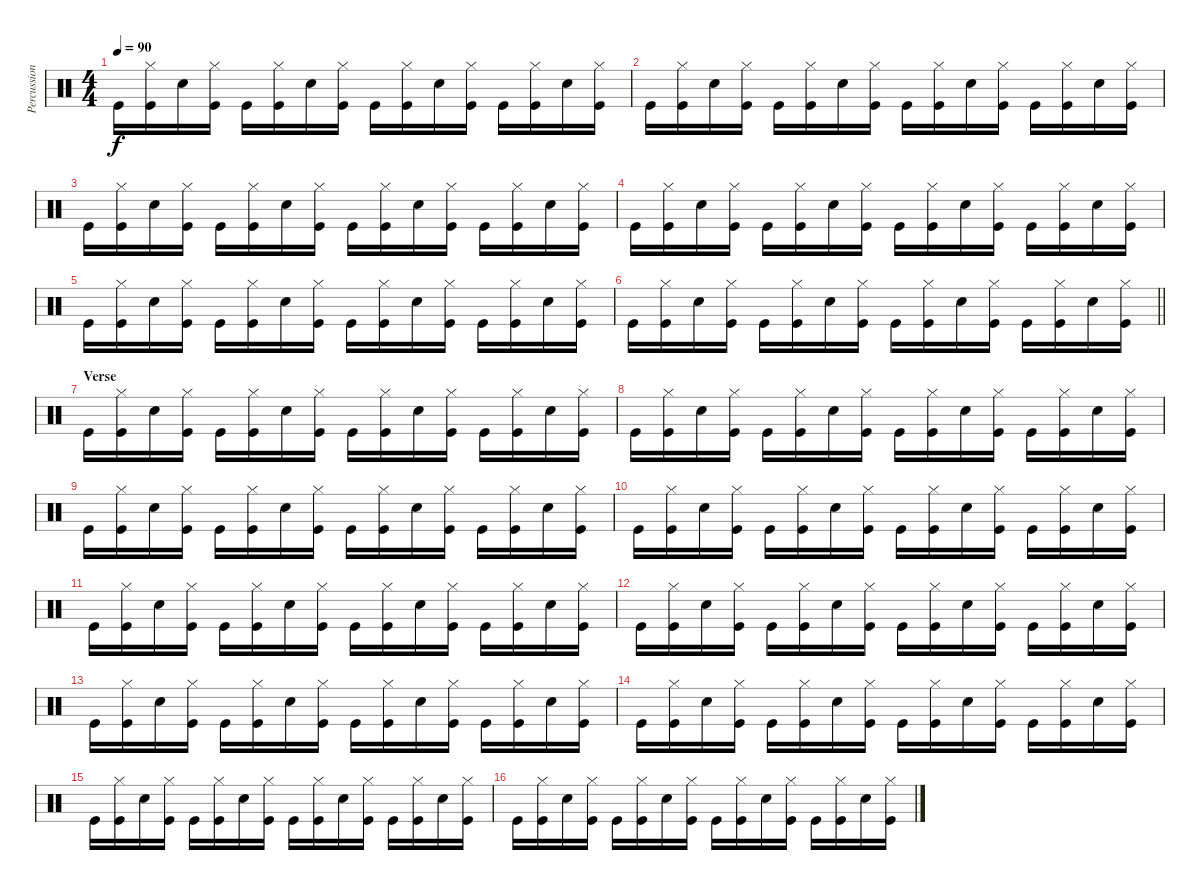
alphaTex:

\track ("Percussion" "Percussion") {instrument percussion}
\staff {score}
\articulation defaults
\ts (4 4)
\tempo 90
\clef neutral
\ks c "Kick (hit)".16{dy f}
("Hi-Hat (closed)" "Kick (hit)").16 "Snare (hit) 2".16 ("Hi-Hat (closed)" "Kick (hit)").16 "Kick (hit)".16 ("Hi-Hat (closed)" "Kick (hit)").16 "Snare (hit) 2".16 ("Hi-Hat (closed)" "Kick (hit)").16 "Kick (hit)".16 ("Hi-Hat (closed)" "Kick (hit)").16 "Snare (hit) 2".16 ("Hi-Hat (closed)" "Kick (hit)").16 "Kick (hit)".16 ("Hi-Hat (closed)" "Kick (hit)").16 "Snare (hit) 2".16 ("Hi-Hat (closed)" "Kick (hit)").16 |
"Kick (hit)".16 ("Hi-Hat (closed)" "Kick (hit)").16 "Snare (hit) 2".16 ("Hi-Hat (closed)" "Kick (hit)").16 "Kick (hit)".16 ("Hi-Hat (closed)" "Kick (hit)").16 "Snare (hit) 2".16 ("Hi-Hat (closed)" "Kick (hit)").16 "Kick (hit)".16 ("Hi-Hat (closed)" "Kick (hit)").16 "Snare (hit) 2".16 ("Hi-Hat (closed)" "Kick (hit)").16 "Kick (hit)".16 ("Hi-Hat (closed)" "Kick (hit)").16 "Snare (hit) 2".16 ("Hi-Hat (closed)" "Kick (hit)").16 |
"Kick (hit)".16 ("Hi-Hat (closed)" "Kick (hit)").16 "Snare (hit) 2".16 ("Hi-Hat (closed)" "Kick (hit)").16 "Kick (hit)".16 ("Hi-Hat (closed)" "Kick (hit)").16 "Snare (hit) 2".16 ("Hi-Hat (closed)" "Kick (hit)").16 "Kick (hit)".16 ("Hi-Hat (closed)" "Kick (hit)").16 "Snare (hit) 2".16 ("Hi-Hat (closed)" "Kick (hit)").16 "Kick (hit)".16 ("Hi-Hat (closed)" "Kick (hit)").16 "Snare (hit) 2".16 ("Hi-Hat (closed)" "Kick (hit)").16 |
"Kick (hit)".16 ("Hi-Hat (closed)" "Kick (hit)").16 "Snare (hit) 2".16 ("Hi-Hat (closed)" "Kick (hit)").16 "Kick (hit)".16 ("Hi-Hat (closed)" "Kick (hit)").16 "Snare (hit) 2".16 ("Hi-Hat (closed)" "Kick (hit)").16 "Kick (hit)".16 ("Hi-Hat (closed)" "Kick (hit)").16 "Snare (hit) 2".16 ("Hi-Hat (closed)" "Kick (hit)").16 "Kick (hit)".16 ("Hi-Hat (closed)" "Kick (hit)").16 "Snare (hit) 2".16 ("Hi-Hat (closed)" "Kick (hit)").16 |
"Kick (hit)".16 ("Hi-Hat (closed)" "Kick (hit)").16 "Snare (hit) 2".16 ("Hi-Hat (closed)" "Kick (hit)").16 "Kick (hit)".16 ("Hi-Hat (closed)" "Kick (hit)").16 "Snare (hit) 2".16 ("Hi-Hat (closed)" "Kick (hit)").16 "Kick (hit)".16 ("Hi-Hat (closed)" "Kick (hit)").16 "Snare (hit) 2".16 ("Hi-Hat (closed)" "Kick (hit)").16 "Kick (hit)".16 ("Hi-Hat (closed)" "Kick (hit)").16 "Snare (hit) 2".16 ("Hi-Hat (closed)" "Kick (hit)").16 |
\barLineRight lightlight "Kick (hit)".16
("Hi-Hat (closed)" "Kick (hit)").16 "Snare (hit) 2".16 ("Hi-Hat (closed)" "Kick (hit)").16 "Kick (hit)".16 ("Hi-Hat (closed)" "Kick (hit)").16 "Snare (hit) 2".16 ("Hi-Hat (closed)" "Kick (hit)").16 "Kick (hit)".16 ("Hi-Hat (closed)" "Kick (hit)").16 "Snare (hit) 2".16 ("Hi-Hat (closed)" "Kick (hit)").16 "Kick (hit)".16 ("Hi-Hat (closed)" "Kick (hit)").16 "Snare (hit) 2".16 ("Hi-Hat (closed)" "Kick (hit)").16 |
\section ("" "Verse")
"Kick (hit)".16 ("Hi-Hat (closed)" "Kick (hit)").16 "Snare (hit) 2".16 ("Hi-Hat (closed)" "Kick (hit)").16 "Kick (hit)".16 ("Hi-Hat (closed)" "Kick (hit)").16 "Snare (hit) 2".16 ("Hi-Hat (closed)" "Kick (hit)").16 "Kick (hit)".16 ("Hi-Hat (closed)" "Kick (hit)").16 "Snare (hit) 2".16 ("Hi-Hat (closed)" "Kick (hit)").16 "Kick (hit)".16 ("Hi-Hat (closed)" "Kick (hit)").16 "Snare (hit) 2".16 ("Hi-Hat (closed)" "Kick (hit)").16 |
"Kick (hit)".16 ("Hi-Hat (closed)" "Kick (hit)").16 "Snare (hit) 2".16 ("Hi-Hat (closed)" "Kick (hit)").16 "Kick (hit)".16 ("Hi-Hat (closed)" "Kick (hit)").16 "Snare (hit) 2".16 ("Hi-Hat (closed)" "Kick (hit)").16 "Kick (hit)".16 ("Hi-Hat (closed)" "Kick (hit)").16 "Snare (hit) 2".16 ("Hi-Hat (closed)" "Kick (hit)").16 "Kick (hit)".16 ("Hi-Hat (closed)" "Kick (hit)").16 "Snare (hit) 2".16 ("Hi-Hat (closed)" "Kick (hit)").16 |
"Kick (hit)".16 ("Hi-Hat (closed)" "Kick (hit)").16 "Snare (hit) 2".16 ("Hi-Hat (closed)" "Kick (hit)").16 "Kick (hit)".16 ("Hi-Hat (closed)" "Kick (hit)").16 "Snare (hit) 2".16 ("Hi-Hat (closed)" "Kick (hit)").16 "Kick (hit)".16 ("Hi-Hat (closed)" "Kick (hit)").16 "Snare (hit) 2".16 ("Hi-Hat (closed)" "Kick (hit)").16 "Kick (hit)".16 ("Hi-Hat (closed)" "Kick (hit)").16 "Snare (hit) 2".16 ("Hi-Hat (closed)" "Kick (hit)").16 |
"Kick (hit)".16 ("Hi-Hat (closed)" "Kick (hit)").16 "Snare (hit) 2".16 ("Hi-Hat (closed)" "Kick (hit)").16 "Kick (hit)".16 ("Hi-Hat (closed)" "Kick (hit)").16 "Snare (hit) 2".16 ("Hi-Hat (closed)" "Kick (hit)").16 "Kick (hit)".16 ("Hi-Hat (closed)" "Kick (hit)").16 "Snare (hit) 2".16 ("Hi-Hat (closed)" "Kick (hit)").16 "Kick (hit)".16 ("Hi-Hat (closed)" "Kick (hit)").16 "Snare (hit) 2".16 ("Hi-Hat (closed)" "Kick (hit)").16 |
"Kick (hit)".16 ("Hi-Hat (closed)" "Kick (hit)").16 "Snare (hit) 2".16 ("Hi-Hat (closed)" "Kick (hit)").16 "Kick (hit)".16 ("Hi-Hat (closed)" "Kick (hit)").16 "Snare (hit) 2".16 ("Hi-Hat (closed)" "Kick (hit)").16 "Kick (hit)".16 ("Hi-Hat (closed)" "Kick (hit)").16 "Snare (hit) 2".16 ("Hi-Hat (closed)" "Kick (hit)").16 "Kick (hit)".16 ("Hi-Hat (closed)" "Kick (hit)").16 "Snare (hit) 2".16 ("Hi-Hat (closed)" "Kick (hit)").16 |
"Kick (hit)".16 ("Hi-Hat (closed)" "Kick (hit)").16 "Snare (hit) 2".16 ("Hi-Hat (closed)" "Kick (hit)").16 "Kick (hit)".16 ("Hi-Hat (closed)" "Kick (hit)").16 "Snare (hit) 2".16 ("Hi-Hat (closed)" "Kick (hit)").16 "Kick (hit)".16 ("Hi-Hat (closed)" "Kick (hit)").16 "Snare (hit) 2".16 ("Hi-Hat (closed)" "Kick (hit)").16 "Kick (hit)".16 ("Hi-Hat (closed)" "Kick (hit)").16 "Snare (hit) 2".16 ("Hi-Hat (closed)" "Kick (hit)").16 |
"Kick (hit)".16 ("Hi-Hat (closed)" "Kick (hit)").16 "Snare (hit) 2".16 ("Hi-Hat (closed)" "Kick (hit)").16 "Kick (hit)".16 ("Hi-Hat (closed)" "Kick (hit)").16 "Snare (hit) 2".16 ("Hi-Hat (closed)" "Kick (hit)").16 "Kick (hit)".16 ("Hi-Hat (closed)" "Kick (hit)").16 "Snare (hit) 2".16 ("Hi-Hat (closed)" "Kick (hit)").16 "Kick (hit)".16 ("Hi-Hat (closed)" "Kick (hit)").16 "Snare (hit) 2".16 ("Hi-Hat (closed)" "Kick (hit)").16 |
"Kick (hit)".16 ("Hi-Hat (closed)" "Kick (hit)").16 "Snare (hit) 2".16 ("Hi-Hat (closed)" "Kick (hit)").16 "Kick (hit)".16 ("Hi-Hat (closed)" "Kick (hit)").16 "Snare (hit) 2".16 ("Hi-Hat (closed)" "Kick (hit)").16 "Kick (hit)".16 ("Hi-Hat (closed)" "Kick (hit)").16 "Snare (hit) 2".16 ("Hi-Hat (closed)" "Kick (hit)").16 "Kick (hit)".16 ("Hi-Hat (closed)" "Kick (hit)").16 "Snare (hit) 2".16 ("Hi-Hat (closed)" "Kick (hit)").16 |
"Kick (hit)".16 ("Hi-Hat (closed)" "Kick (hit)").16 "Snare (hit) 2".16 ("Hi-Hat (closed)" "Kick (hit)").16 "Kick (hit)".16 ("Hi-Hat (closed)" "Kick (hit)").16 "Snare (hit) 2".16 ("Hi-Hat (closed)" "Kick (hit)").16 "Kick (hit)".16 ("Hi-Hat (closed)" "Kick (hit)").16 "Snare (hit) 2".16 ("Hi-Hat (closed)" "Kick (hit)").16 "Kick (hit)".16 ("Hi-Hat (closed)" "Kick (hit)").16 "Snare (hit) 2".16 ("Hi-Hat (closed)" "Kick (hit)").16 |
"Kick (hit)".16 ("Hi-Hat (closed)" "Kick (hit)").16 "Snare (hit) 2".16 ("Hi-Hat (closed)" "Kick (hit)").16 "Kick (hit)".16 ("Hi-Hat (closed)" "Kick (hit)").16 "Snare (hit) 2".16 ("Hi-Hat (closed)" "Kick (hit)").16 "Kick (hit)".16 ("Hi-Hat (closed)" "Kick (hit)").16 "Snare (hit) 2".16 ("Hi-Hat (closed)" "Kick (hit)").16 "Kick (hit)".16 ("Hi-Hat (closed)" "Kick (hit)").16 "Snare (hit) 2".16 ("Hi-Hat (closed)" "Kick (hit)").16
